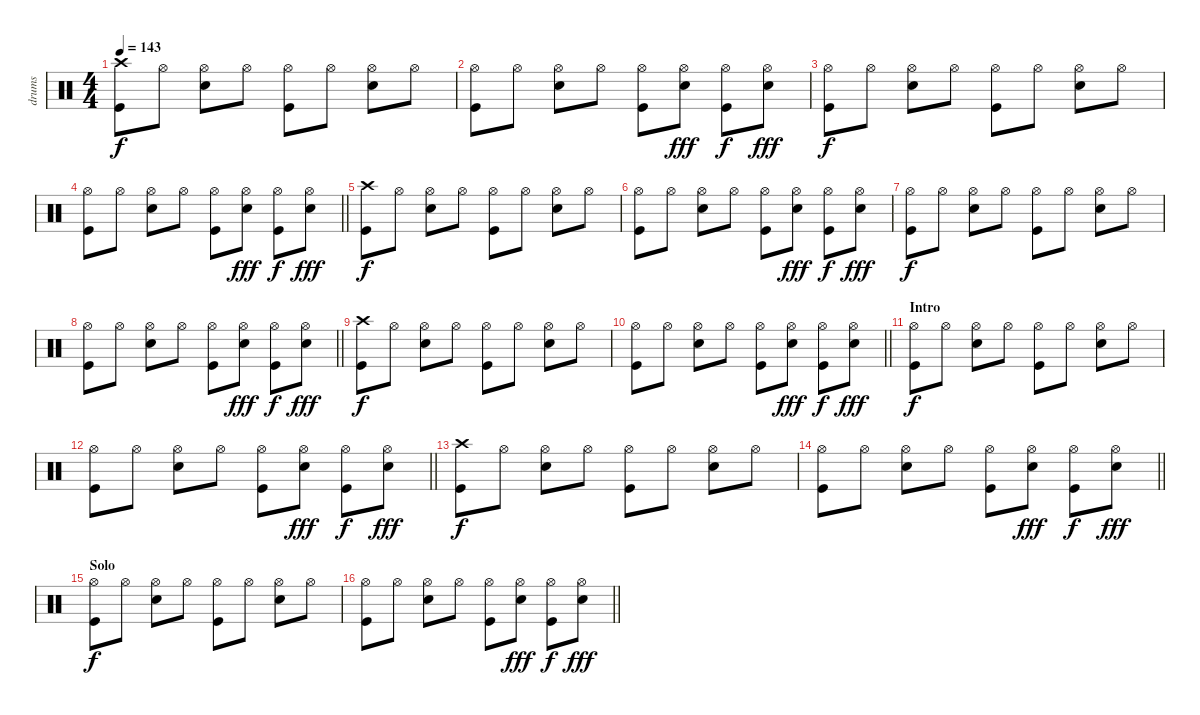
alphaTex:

\track ("drums" "drums") {instrument percussion}
\staff {score}
\articulation defaults
\ts (4 4)
\tempo 143
\clef neutral
\ks c
("Crash high (hit)" "Kick (hit)").8{dy f} "Hi-Hat (open)".8 ("Hi-Hat (open)" "Snare (hit) 2").8 "Hi-Hat (open)".8 ("Hi-Hat (open)" "Kick (hit)").8 "Hi-Hat (open)".8 ("Hi-Hat (open)" "Snare (hit) 2").8 "Hi-Hat (open)".8 |
("Hi-Hat (open)" "Kick (hit)").8 "Hi-Hat (open)".8 ("Hi-Hat (open)" "Snare (hit) 2").8 "Hi-Hat (open)".8 ("Hi-Hat (open)" "Kick (hit)").8 ("Hi-Hat (open)" "Snare (hit) 2").8{dy fff} ("Hi-Hat (open)" "Kick (hit)").8{dy f} ("Hi-Hat (open)" "Snare (hit) 2").8{dy fff} |
("Hi-Hat (open)" "Kick (hit)").8{dy f} "Hi-Hat (open)".8 ("Hi-Hat (open)" "Snare (hit) 2").8 "Hi-Hat (open)".8 ("Hi-Hat (open)" "Kick (hit)").8 "Hi-Hat (open)".8 ("Hi-Hat (open)" "Snare (hit) 2").8 "Hi-Hat (open)".8 |
\barLineRight lightlight
("Hi-Hat (open)" "Kick (hit)").8 "Hi-Hat (open)".8 ("Hi-Hat (open)" "Snare (hit) 2").8 "Hi-Hat (open)".8 ("Hi-Hat (open)" "Kick (hit)").8 ("Hi-Hat (open)" "Snare (hit) 2").8{dy fff} ("Hi-Hat (open)" "Kick (hit)").8{dy f} ("Hi-Hat (open)" "Snare (hit) 2").8{dy fff} |
("Crash high (hit)" "Kick (hit)").8{dy f} "Hi-Hat (open)".8 ("Hi-Hat (open)" "Snare (hit) 2").8 "Hi-Hat (open)".8 ("Hi-Hat (open)" "Kick (hit)").8 "Hi-Hat (open)".8 ("Hi-Hat (open)" "Snare (hit) 2").8 "Hi-Hat (open)".8 |
("Hi-Hat (open)" "Kick (hit)").8 "Hi-Hat (open)".8 ("Hi-Hat (open)" "Snare (hit) 2").8 "Hi-Hat (open)".8 ("Hi-Hat (open)" "Kick (hit)").8 ("Hi-Hat (open)" "Snare (hit) 2").8{dy fff} ("Hi-Hat (open)" "Kick (hit)").8{dy f} ("Hi-Hat (open)" "Snare (hit) 2").8{dy fff} |
("Hi-Hat (open)" "Kick (hit)").8{dy f} "Hi-Hat (open)".8 ("Hi-Hat (open)" "Snare (hit) 2").8 "Hi-Hat (open)".8 ("Hi-Hat (open)" "Kick (hit)").8 "Hi-Hat (open)".8 ("Hi-Hat (open)" "Snare (hit) 2").8 "Hi-Hat (open)".8 |
\barLineRight lightlight
("Hi-Hat (open)" "Kick (hit)").8 "Hi-Hat (open)".8 ("Hi-Hat (open)" "Snare (hit) 2").8 "Hi-Hat (open)".8 ("Hi-Hat (open)" "Kick (hit)").8 ("Hi-Hat (open)" "Snare (hit) 2").8{dy fff} ("Hi-Hat (open)" "Kick (hit)").8{dy f} ("Hi-Hat (open)" "Snare (hit) 2").8{dy fff} |
("Crash high (hit)" "Kick (hit)").8{dy f} "Hi-Hat (open)".8 ("Hi-Hat (open)" "Snare (hit) 2").8 "Hi-Hat (open)".8 ("Hi-Hat (open)" "Kick (hit)").8 "Hi-Hat (open)".8 ("Hi-Hat (open)" "Snare (hit) 2").8 "Hi-Hat (open)".8 |
\barLineRight lightlight
("Hi-Hat (open)" "Kick (hit)").8 "Hi-Hat (open)".8 ("Hi-Hat (open)" "Snare (hit) 2").8 "Hi-Hat (open)".8 ("Hi-Hat (open)" "Kick (hit)").8 ("Hi-Hat (open)" "Snare (hit) 2").8{dy fff} ("Hi-Hat (open)" "Kick (hit)").8{dy f} ("Hi-Hat (open)" "Snare (hit) 2").8{dy fff} |
\section ("" "Intro")
("Hi-Hat (open)" "Kick (hit)").8{dy f} "Hi-Hat (open)".8 ("Hi-Hat (open)" "Snare (hit) 2").8 "Hi-Hat (open)".8 ("Hi-Hat (open)" "Kick (hit)").8 "Hi-Hat (open)".8 ("Hi-Hat (open)" "Snare (hit) 2").8 "Hi-Hat (open)".8 |
\barLineRight lightlight
("Hi-Hat (open)" "Kick (hit)").8 "Hi-Hat (open)".8 ("Hi-Hat (open)" "Snare (hit) 2").8 "Hi-Hat (open)".8 ("Hi-Hat (open)" "Kick (hit)").8 ("Hi-Hat (open)" "Snare (hit) 2").8{dy fff} ("Hi-Hat (open)" "Kick (hit)").8{dy f} ("Hi-Hat (open)" "Snare (hit) 2").8{dy fff} |
("Crash high (hit)" "Kick (hit)").8{dy f} "Hi-Hat (open)".8 ("Hi-Hat (open)" "Snare (hit) 2").8 "Hi-Hat (open)".8 ("Hi-Hat (open)" "Kick (hit)").8 "Hi-Hat (open)".8 ("Hi-Hat (open)" "Snare (hit) 2").8 "Hi-Hat (open)".8 |
\barLineRight lightlight
("Hi-Hat (open)" "Kick (hit)").8 "Hi-Hat (open)".8 ("Hi-Hat (open)" "Snare (hit) 2").8 "Hi-Hat (open)".8 ("Hi-Hat (open)" "Kick (hit)").8 ("Hi-Hat (open)" "Snare (hit) 2").8{dy fff} ("Hi-Hat (open)" "Kick (hit)").8{dy f} ("Hi-Hat (open)" "Snare (hit) 2").8{dy fff} |
\section ("" "Solo")
("Hi-Hat (open)" "Kick (hit)").8{dy f} "Hi-Hat (open)".8 ("Hi-Hat (open)" "Snare (hit) 2").8 "Hi-Hat (open)".8 ("Hi-Hat (open)" "Kick (hit)").8 "Hi-Hat (open)".8 ("Hi-Hat (open)" "Snare (hit) 2").8 "Hi-Hat (open)".8 |
\barLineRight lightlight
("Hi-Hat (open)" "Kick (hit)").8 "Hi-Hat (open)".8 ("Hi-Hat (open)" "Snare (hit) 2").8 "Hi-Hat (open)".8 ("Hi-Hat (open)" "Kick (hit)").8 ("Hi-Hat (open)" "Snare (hit) 2").8{dy fff} ("Hi-Hat (open)" "Kick (hit)").8{dy f} ("Hi-Hat (open)" "Snare (hit) 2").8{dy fff}
